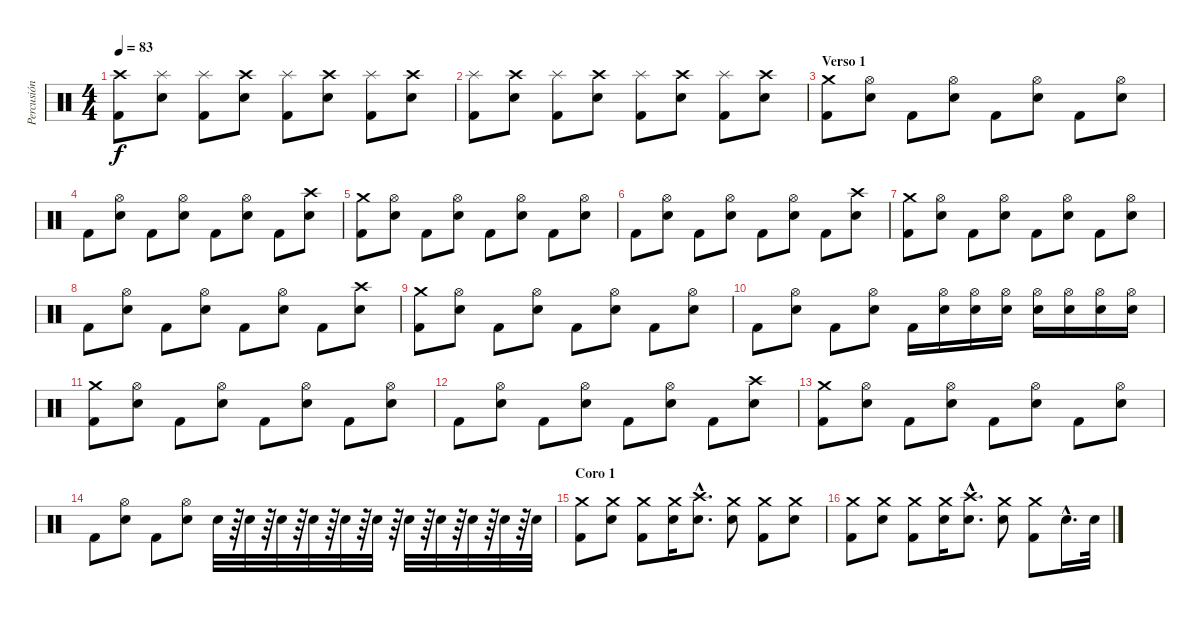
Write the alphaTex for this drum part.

\track ("Percusión" "Percusión") {instrument percussion}
\staff {score}
\articulation defaults
\ts (4 4)
\tempo 83
\clef neutral
\ks c
("Kick (hit) 2" "Crash high (hit)").8{dy f} ("Snare (hit) 2" "Splash (hit)").8 ("Kick (hit) 2" "Splash (hit)").8 ("Snare (hit) 2" "Crash high (hit)").8 ("Kick (hit) 2" "Splash (hit)").8 ("Snare (hit) 2" "Crash high (hit)").8 ("Kick (hit) 2" "Splash (hit)").8 ("Snare (hit) 2" "Crash high (hit)").8 |
("Kick (hit) 2" "Splash (hit)").8 ("Snare (hit) 2" "Crash high (hit)").8 ("Kick (hit) 2" "Splash (hit)").8 ("Snare (hit) 2" "Crash high (hit)").8 ("Kick (hit) 2" "Splash (hit)").8 ("Snare (hit) 2" "Crash high (hit)").8 ("Kick (hit) 2" "Splash (hit)").8 ("Snare (hit) 2" "Crash high (hit)").8 |
\section ("" "Verso 1")
("Kick (hit) 2" "Crash medium (hit)").8 ("Snare (hit) 2" "Hi-Hat (open)").8 "Kick (hit) 2".8 ("Snare (hit) 2" "Hi-Hat (open)").8 "Kick (hit) 2".8 ("Snare (hit) 2" "Hi-Hat (open)").8 "Kick (hit) 2".8 ("Snare (hit) 2" "Hi-Hat (open)").8 |
"Kick (hit) 2".8 ("Snare (hit) 2" "Hi-Hat (open)").8 "Kick (hit) 2".8 ("Snare (hit) 2" "Hi-Hat (open)").8 "Kick (hit) 2".8 ("Snare (hit) 2" "Hi-Hat (open)").8 "Kick (hit) 2".8 ("Snare (hit) 2" "Crash high (hit)").8 |
("Kick (hit) 2" "Crash medium (hit)").8 ("Snare (hit) 2" "Hi-Hat (open)").8 "Kick (hit) 2".8 ("Snare (hit) 2" "Hi-Hat (open)").8 "Kick (hit) 2".8 ("Snare (hit) 2" "Hi-Hat (open)").8 "Kick (hit) 2".8 ("Snare (hit) 2" "Hi-Hat (open)").8 |
"Kick (hit) 2".8 ("Snare (hit) 2" "Hi-Hat (open)").8 "Kick (hit) 2".8 ("Snare (hit) 2" "Hi-Hat (open)").8 "Kick (hit) 2".8 ("Snare (hit) 2" "Hi-Hat (open)").8 "Kick (hit) 2".8 ("Snare (hit) 2" "Crash high (hit)").8 |
("Kick (hit) 2" "Crash medium (hit)").8 ("Snare (hit) 2" "Hi-Hat (open)").8 "Kick (hit) 2".8 ("Snare (hit) 2" "Hi-Hat (open)").8 "Kick (hit) 2".8 ("Snare (hit) 2" "Hi-Hat (open)").8 "Kick (hit) 2".8 ("Snare (hit) 2" "Hi-Hat (open)").8 |
"Kick (hit) 2".8 ("Snare (hit) 2" "Hi-Hat (open)").8 "Kick (hit) 2".8 ("Snare (hit) 2" "Hi-Hat (open)").8 "Kick (hit) 2".8 ("Snare (hit) 2" "Hi-Hat (open)").8 "Kick (hit) 2".8 ("Snare (hit) 2" "Crash high (hit)").8 |
("Kick (hit) 2" "Crash medium (hit)").8 ("Snare (hit) 2" "Hi-Hat (open)").8 "Kick (hit) 2".8 ("Snare (hit) 2" "Hi-Hat (open)").8 "Kick (hit) 2".8 ("Snare (hit) 2" "Hi-Hat (open)").8 "Kick (hit) 2".8 ("Snare (hit) 2" "Hi-Hat (open)").8 |
"Kick (hit) 2".8 ("Snare (hit) 2" "Hi-Hat (open)").8 "Kick (hit) 2".8 ("Snare (hit) 2" "Hi-Hat (open)").8 "Kick (hit) 2".16 ("Snare (hit) 2" "Hi-Hat (open)").16 ("Snare (hit) 2" "Hi-Hat (open)").16 ("Snare (hit) 2" "Hi-Hat (open)").16 ("Snare (hit) 2" "Hi-Hat (open)").16 ("Snare (hit) 2" "Hi-Hat (open)").16 ("Snare (hit) 2" "Hi-Hat (open)").16 ("Snare (hit) 2" "Hi-Hat (open)").16 |
("Kick (hit) 2" "Crash medium (hit)").8 ("Snare (hit) 2" "Hi-Hat (open)").8 "Kick (hit) 2".8 ("Snare (hit) 2" "Hi-Hat (open)").8 "Kick (hit) 2".8 ("Snare (hit) 2" "Hi-Hat (open)").8 "Kick (hit) 2".8 ("Snare (hit) 2" "Hi-Hat (open)").8 |
"Kick (hit) 2".8 ("Snare (hit) 2" "Hi-Hat (open)").8 "Kick (hit) 2".8 ("Snare (hit) 2" "Hi-Hat (open)").8 "Kick (hit) 2".8 ("Snare (hit) 2" "Hi-Hat (open)").8 "Kick (hit) 2".8 ("Snare (hit) 2" "Crash high (hit)").8 |
("Kick (hit) 2" "Crash medium (hit)").8 ("Snare (hit) 2" "Hi-Hat (open)").8 "Kick (hit) 2".8 ("Snare (hit) 2" "Hi-Hat (open)").8 "Kick (hit) 2".8 ("Snare (hit) 2" "Hi-Hat (open)").8 "Kick (hit) 2".8 ("Snare (hit) 2" "Hi-Hat (open)").8 |
"Kick (hit) 2".8 ("Snare (hit) 2" "Hi-Hat (open)").8 "Kick (hit) 2".8 ("Snare (hit) 2" "Hi-Hat (open)").8 "Snare (hit) 2".32 r.64 "Snare (hit) 2".32 r.64 "Snare (hit) 2".32 r.64 "Snare (hit) 2".32 r.64 "Snare (hit) 2".32 r.64 "Snare (hit) 2".32 r.64 "Snare (hit) 2".32 r.64 "Snare (hit) 2".32 r.64 "Snare (hit) 2".32 r.64 "Snare (hit) 2".32 r.64 "Snare (hit) 2".32 |
\section ("" "Coro 1")
("Kick (hit) 2" "Crash medium (hit)").8 ("Snare (hit) 2" "Crash medium (hit)").8 ("Kick (hit) 2" "Crash medium (hit)").8 ("Snare (hit) 2" "Crash medium (hit)").16 ("Snare (hit) 2"{hac} "Crash high (hit)"{hac}).8{d} ("Snare (hit) 2" "Crash medium (hit)").8 ("Kick (hit) 2" "Crash medium (hit)").8 ("Snare (hit) 2" "Crash medium (hit)").8 |
("Kick (hit) 2" "Crash medium (hit)").8 ("Snare (hit) 2" "Crash medium (hit)").8 ("Kick (hit) 2" "Crash medium (hit)").8 ("Snare (hit) 2" "Crash medium (hit)").16 ("Snare (hit) 2"{hac} "Crash high (hit)"{hac}).8{d} ("Snare (hit) 2" "Crash medium (hit)").8 ("Kick (hit) 2" "Crash medium (hit)").8 "Snare (hit) 2"{hac}.16{d} "Snare (hit) 2".32
